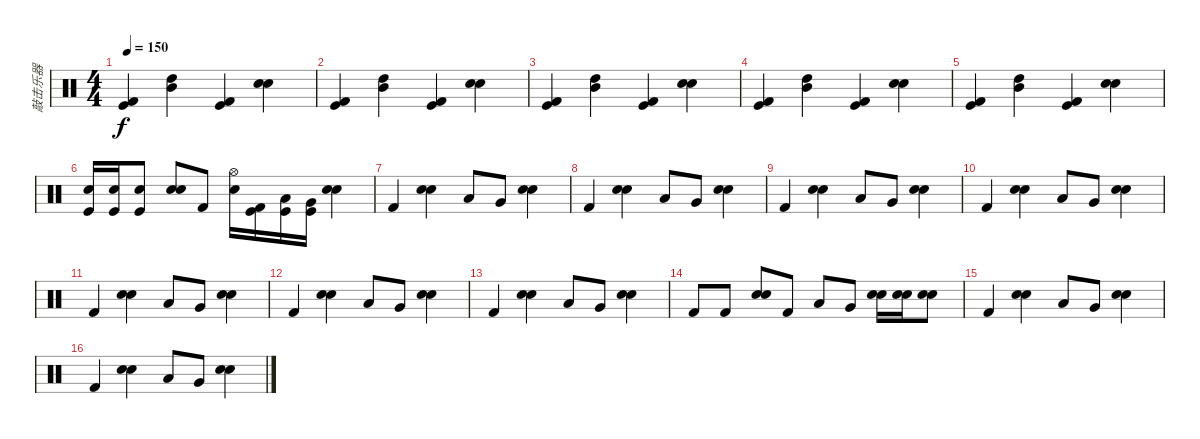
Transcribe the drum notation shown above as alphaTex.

\track ("敲击乐器" "敲击乐器") {instrument percussion}
\staff {score}
\articulation defaults
\ts (4 4)
\tempo 150
\clef neutral
\ks c
("Kick (hit) 2" "Kick (hit)").4{dy f} ("High Tom (hit)" "Mid Tom (hit)").4 ("Kick (hit) 2" "Kick (hit)").4 ("Electric Snare (hit)" "Snare (hit) 2").4 |
("Kick (hit) 2" "Kick (hit)").4 ("High Tom (hit)" "Mid Tom (hit)").4 ("Kick (hit) 2" "Kick (hit)").4 ("Electric Snare (hit)" "Snare (hit) 2").4 |
("Kick (hit) 2" "Kick (hit)").4 ("High Tom (hit)" "Mid Tom (hit)").4 ("Kick (hit) 2" "Kick (hit)").4 ("Electric Snare (hit)" "Snare (hit) 2").4 |
("Kick (hit) 2" "Kick (hit)").4 ("High Tom (hit)" "Mid Tom (hit)").4 ("Kick (hit) 2" "Kick (hit)").4 ("Electric Snare (hit)" "Snare (hit) 2").4 |
("Kick (hit) 2" "Kick (hit)").4 ("High Tom (hit)" "Mid Tom (hit)").4 ("Kick (hit) 2" "Kick (hit)").4 ("Electric Snare (hit)" "Snare (hit) 2").4 |
("Snare (hit) 2" "Kick (hit)").16 ("Snare (hit) 2" "Kick (hit)").16 ("Snare (hit) 2" "Kick (hit)").8 ("Electric Snare (hit)" "Snare (hit) 2").8 "Kick (hit) 2".8 ("Hi-Hat (open)" "Snare (hit) 2").16 ("Kick (hit) 2" "Kick (hit)").16 ("Low Tom (hit)" "Kick (hit)").16 ("Very Low Tom (hit)" "Kick (hit)").16 ("Electric Snare (hit)" "Snare (hit) 2").4 |
"Kick (hit) 2".4 ("Electric Snare (hit)" "Snare (hit) 2").4 "Low Tom (hit)".8 "Very Low Tom (hit)".8 ("Electric Snare (hit)" "Snare (hit) 2").4 |
"Kick (hit) 2".4 ("Electric Snare (hit)" "Snare (hit) 2").4 "Low Tom (hit)".8 "Very Low Tom (hit)".8 ("Electric Snare (hit)" "Snare (hit) 2").4 |
"Kick (hit) 2".4 ("Electric Snare (hit)" "Snare (hit) 2").4 "Low Tom (hit)".8 "Very Low Tom (hit)".8 ("Electric Snare (hit)" "Snare (hit) 2").4 |
"Kick (hit) 2".4 ("Electric Snare (hit)" "Snare (hit) 2").4 "Low Tom (hit)".8 "Very Low Tom (hit)".8 ("Electric Snare (hit)" "Snare (hit) 2").4 |
"Kick (hit) 2".4 ("Electric Snare (hit)" "Snare (hit) 2").4 "Low Tom (hit)".8 "Very Low Tom (hit)".8 ("Electric Snare (hit)" "Snare (hit) 2").4 |
"Kick (hit) 2".4 ("Electric Snare (hit)" "Snare (hit) 2").4 "Low Tom (hit)".8 "Very Low Tom (hit)".8 ("Electric Snare (hit)" "Snare (hit) 2").4 |
"Kick (hit) 2".4 ("Electric Snare (hit)" "Snare (hit) 2").4 "Low Tom (hit)".8 "Very Low Tom (hit)".8 ("Electric Snare (hit)" "Snare (hit) 2").4 |
"Kick (hit) 2".8 "Kick (hit) 2".8 ("Electric Snare (hit)" "Snare (hit) 2").8 "Kick (hit) 2".8 "Low Tom (hit)".8 "Very Low Tom (hit)".8 ("Electric Snare (hit)" "Snare (hit) 2").16 ("Electric Snare (hit)" "Snare (hit) 2").16 ("Electric Snare (hit)" "Snare (hit) 2").8 |
"Kick (hit) 2".4 ("Electric Snare (hit)" "Snare (hit) 2").4 "Low Tom (hit)".8 "Very Low Tom (hit)".8 ("Electric Snare (hit)" "Snare (hit) 2").4 |
"Kick (hit) 2".4 ("Electric Snare (hit)" "Snare (hit) 2").4 "Low Tom (hit)".8 "Very Low Tom (hit)".8 ("Electric Snare (hit)" "Snare (hit) 2").4
